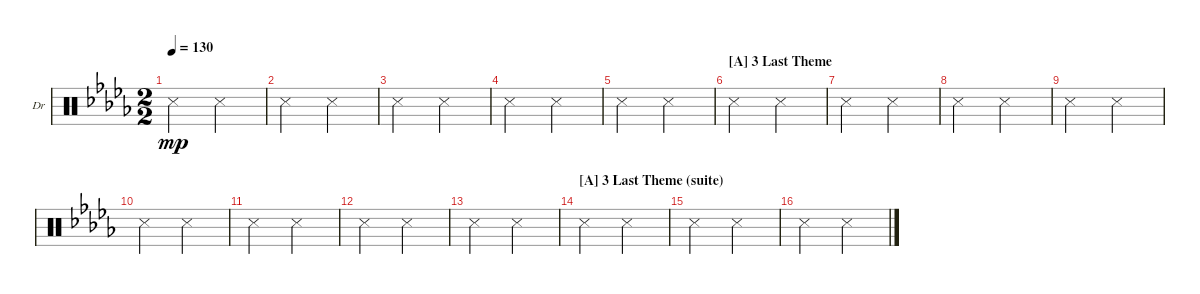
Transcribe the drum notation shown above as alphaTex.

\defaultSystemsLayout 4
\bracketExtendMode nobrackets
\firstSystemTrackNameOrientation horizontal
\otherSystemsTrackNameOrientation horizontal
\chordDiagramsInScore
\track ("Drums" "Dr") {instrument percussion}
\staff {score}
\articulation defaults
\ts (2 2)
\tempo 130
\clef neutral
\ks db "Snare (side stick) 3".2{dy mp} "Snare (side stick) 3".2
|
"Snare (side stick) 3".2 "Snare (side stick) 3".2 |
"Snare (side stick) 3".2 "Snare (side stick) 3".2 |
"Snare (side stick) 3".2 "Snare (side stick) 3".2 |
"Snare (side stick) 3".2 "Snare (side stick) 3".2 |
\section ("A" "3 Last Theme")
"Snare (side stick) 3".2 "Snare (side stick) 3".2 |
"Snare (side stick) 3".2 "Snare (side stick) 3".2 |
"Snare (side stick) 3".2 "Snare (side stick) 3".2 |
"Snare (side stick) 3".2 "Snare (side stick) 3".2 |
"Snare (side stick) 3".2 "Snare (side stick) 3".2 |
"Snare (side stick) 3".2 "Snare (side stick) 3".2 |
"Snare (side stick) 3".2 "Snare (side stick) 3".2 |
"Snare (side stick) 3".2 "Snare (side stick) 3".2 |
\section ("A" "3 Last Theme (suite)")
"Snare (side stick) 3".2 "Snare (side stick) 3".2 |
"Snare (side stick) 3".2 "Snare (side stick) 3".2 |
"Snare (side stick) 3".2 "Snare (side stick) 3".2
